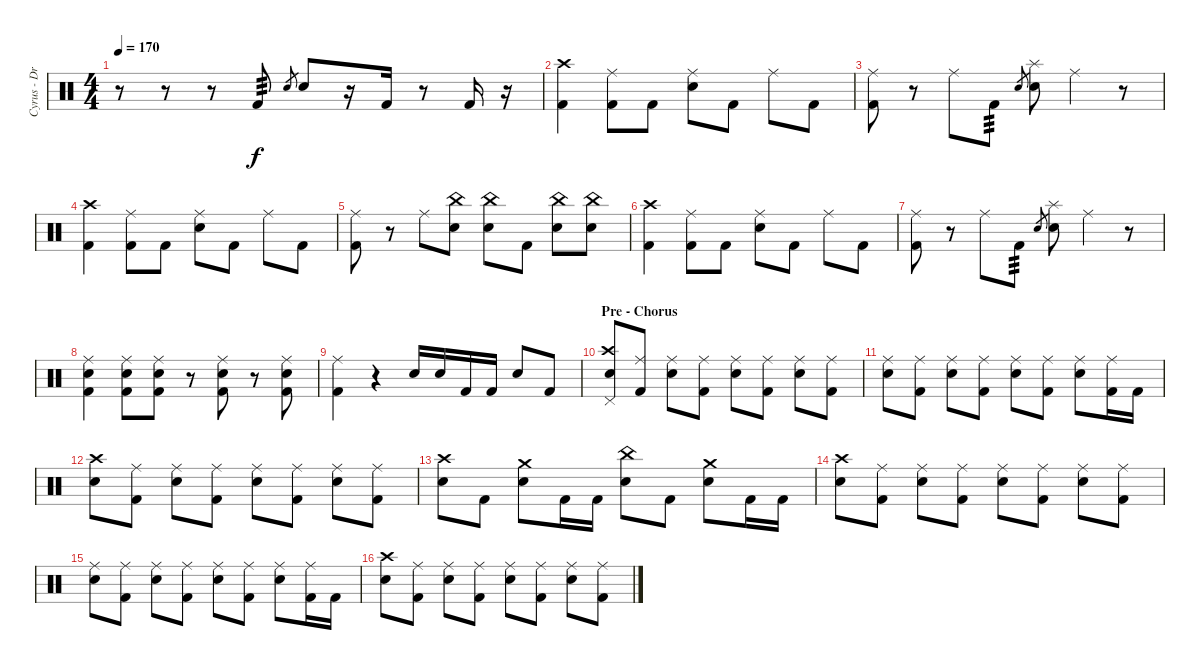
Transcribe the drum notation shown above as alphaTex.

\track ("Cyrus - Drums" "Cyrus - Dr") {instrument percussion}
\staff {score}
\articulation defaults
\ts (4 4)
\tempo 170
\clef neutral
\ks c
r.8{dy f} r.8 r.8 "Kick (hit) 2".8{tp 3} "Electric Snare (hit)".8{gr} "Electric Snare (hit)".8 r.16 "Kick (hit) 2".16 r.8 "Kick (hit) 2".16 r.16 |
("Crash high (hit)" "Kick (hit) 2").4 ("Ride (middle)" "Kick (hit) 2").8 "Kick (hit) 2".8 ("Ride (middle)" "Electric Snare (hit)").8 "Kick (hit) 2".8 "Ride (middle)".8 "Kick (hit) 2".8 |
("Ride (middle)" "Kick (hit) 2").8 r.8 "Ride (middle)".8 "Kick (hit) 2".8{tp 3} "Electric Snare (hit)".8{gr} ("Splash (hit)" "Electric Snare (hit)").8 "Ride (middle)".4 r.8 |
("Crash high (hit)" "Kick (hit) 2").4 ("Ride (middle)" "Kick (hit) 2").8 "Kick (hit) 2".8 ("Ride (middle)" "Electric Snare (hit)").8 "Kick (hit) 2".8 "Ride (middle)".8 "Kick (hit) 2".8 |
("Ride (middle)" "Kick (hit) 2").8 r.8 "Ride (middle)".8 ("China (hit)" "Electric Snare (hit)").8 ("China (hit)" "Electric Snare (hit)").8 "Kick (hit) 2".8 ("China (hit)" "Electric Snare (hit)").8 ("China (hit)" "Electric Snare (hit)").8 |
("Crash high (hit)" "Kick (hit) 2").4 ("Ride (middle)" "Kick (hit) 2").8 "Kick (hit) 2".8 ("Ride (middle)" "Electric Snare (hit)").8 "Kick (hit) 2".8 "Ride (middle)".8 "Kick (hit) 2".8 |
("Ride (middle)" "Kick (hit) 2").8 r.8 "Ride (middle)".8 "Kick (hit) 2".8{tp 3} "Electric Snare (hit)".8{gr} ("Splash (hit)" "Electric Snare (hit)").8 "Ride (middle)".4 r.8 |
("Ride (middle)" "Electric Snare (hit)" "Kick (hit) 2").4 ("Ride (middle)" "Electric Snare (hit)" "Kick (hit) 2").8 ("Ride (middle)" "Electric Snare (hit)" "Kick (hit) 2").8 r.8 ("Ride (middle)" "Electric Snare (hit)" "Kick (hit) 2").8 r.8 ("Ride (middle)" "Electric Snare (hit)" "Kick (hit) 2").8 |
("Ride (middle)" "Kick (hit) 2").4 r.4 "Electric Snare (hit)".16 "Electric Snare (hit)".16 "Kick (hit) 2".16 "Kick (hit) 2".16 "Electric Snare (hit)".8 "Kick (hit) 2".8 |
\section ("" "Pre - Chorus")
("Crash high (hit)" "Pedal Hi-Hat (hit)" "Electric Snare (hit)").8 ("Ride (middle)" "Kick (hit) 2").8 ("Ride (middle)" "Electric Snare (hit)").8 ("Ride (middle)" "Kick (hit) 2").8 ("Ride (middle)" "Electric Snare (hit)").8 ("Ride (middle)" "Kick (hit) 2").8 ("Ride (middle)" "Electric Snare (hit)").8 ("Ride (middle)" "Kick (hit) 2").8 |
("Ride (middle)" "Electric Snare (hit)").8 ("Ride (middle)" "Kick (hit) 2").8 ("Ride (middle)" "Electric Snare (hit)").8 ("Ride (middle)" "Kick (hit) 2").8 ("Ride (middle)" "Electric Snare (hit)").8 ("Ride (middle)" "Kick (hit) 2").8 ("Ride (middle)" "Electric Snare (hit)").8 ("Ride (middle)" "Kick (hit) 2").16 "Kick (hit) 2".16 |
("Crash high (hit)" "Electric Snare (hit)").8 ("Ride (middle)" "Kick (hit) 2").8 ("Ride (middle)" "Electric Snare (hit)").8 ("Ride (middle)" "Kick (hit) 2").8 ("Ride (middle)" "Electric Snare (hit)").8 ("Ride (middle)" "Kick (hit) 2").8 ("Ride (middle)" "Electric Snare (hit)").8 ("Ride (middle)" "Kick (hit) 2").8 |
("Crash high (hit)" "Electric Snare (hit)").8 "Kick (hit) 2".8 ("Crash medium (hit)" "Electric Snare (hit)").8 "Kick (hit) 2".16 "Kick (hit) 2".16 ("China (hit)" "Electric Snare (hit)").8 "Kick (hit) 2".8 ("Crash medium (hit)" "Electric Snare (hit)").8 "Kick (hit) 2".16 "Kick (hit) 2".16 |
("Crash high (hit)" "Electric Snare (hit)").8 ("Ride (middle)" "Kick (hit) 2").8 ("Ride (middle)" "Electric Snare (hit)").8 ("Ride (middle)" "Kick (hit) 2").8 ("Ride (middle)" "Electric Snare (hit)").8 ("Ride (middle)" "Kick (hit) 2").8 ("Ride (middle)" "Electric Snare (hit)").8 ("Ride (middle)" "Kick (hit) 2").8 |
("Ride (middle)" "Electric Snare (hit)").8 ("Ride (middle)" "Kick (hit) 2").8 ("Ride (middle)" "Electric Snare (hit)").8 ("Ride (middle)" "Kick (hit) 2").8 ("Ride (middle)" "Electric Snare (hit)").8 ("Ride (middle)" "Kick (hit) 2").8 ("Ride (middle)" "Electric Snare (hit)").8 ("Ride (middle)" "Kick (hit) 2").16 "Kick (hit) 2".16 |
("Crash high (hit)" "Electric Snare (hit)").8 ("Ride (middle)" "Kick (hit) 2").8 ("Ride (middle)" "Electric Snare (hit)").8 ("Ride (middle)" "Kick (hit) 2").8 ("Ride (middle)" "Electric Snare (hit)").8 ("Ride (middle)" "Kick (hit) 2").8 ("Ride (middle)" "Electric Snare (hit)").8 ("Ride (middle)" "Kick (hit) 2").8
